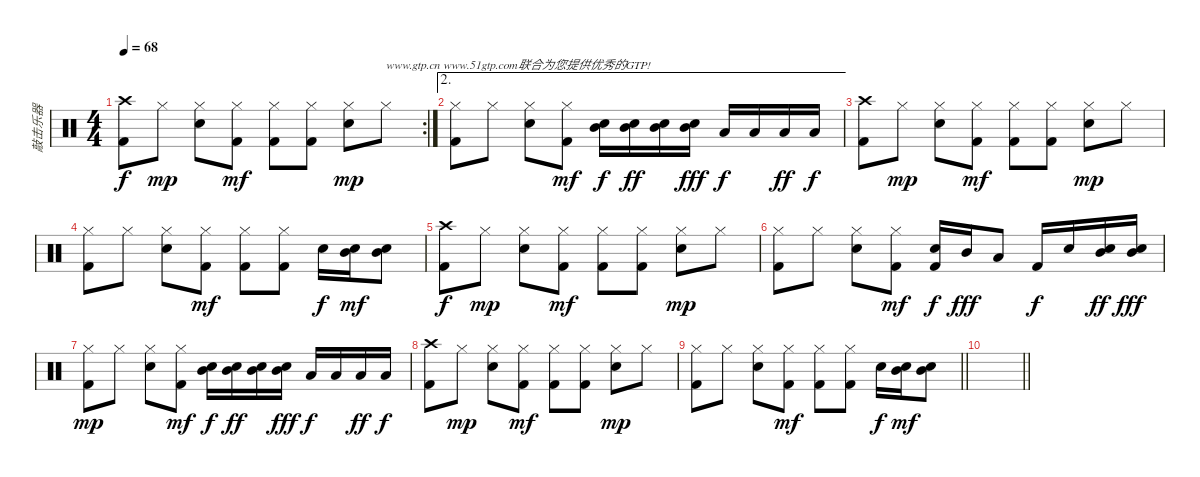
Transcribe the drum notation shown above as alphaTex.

\track ("敲击乐器" "敲击乐器") {instrument percussion}
\staff {score}
\articulation defaults
\rc 2
\ts (4 4)
\tempo 68
\clef neutral
\ks c
("Crash high (hit)" "Kick (hit) 2").8{dy f} "Hi-Hat (closed)".8{dy mp} ("Hi-Hat (closed)" "Electric Snare (hit)").8 ("Hi-Hat (closed)" "Kick (hit) 2").8{dy mf} ("Hi-Hat (closed)" "Kick (hit) 2").8 ("Hi-Hat (closed)" "Kick (hit) 2").8 ("Hi-Hat (closed)" "Electric Snare (hit)").8{dy mp} "Hi-Hat (closed)".8{txt "www.gtp.cn www.51gtp.com联合为您提供优秀的GTP!"} |
\ae 2
("Hi-Hat (closed)" "Kick (hit) 2").8 "Hi-Hat (closed)".8 ("Hi-Hat (closed)" "Electric Snare (hit)").8 ("Hi-Hat (closed)" "Kick (hit) 2").8{dy mf} ("Mid Tom (hit)" "Snare (hit) 2").16{dy f} ("Mid Tom (hit)" "Snare (hit) 2").16{dy ff} ("Mid Tom (hit)" "Snare (hit) 2").16 ("Mid Tom (hit)" "Snare (hit) 2").16{dy fff} "Low Tom (hit)".16{dy f} "Low Tom (hit)".16 "Low Tom (hit)".16{dy ff} "Low Tom (hit)".16{dy f} |
("Crash high (hit)" "Kick (hit) 2").8 "Hi-Hat (closed)".8{dy mp} ("Hi-Hat (closed)" "Electric Snare (hit)").8 ("Hi-Hat (closed)" "Kick (hit) 2").8{dy mf} ("Hi-Hat (closed)" "Kick (hit) 2").8 ("Hi-Hat (closed)" "Kick (hit) 2").8 ("Hi-Hat (closed)" "Electric Snare (hit)").8{dy mp} "Hi-Hat (closed)".8 |
("Hi-Hat (closed)" "Kick (hit) 2").8 "Hi-Hat (closed)".8 ("Hi-Hat (closed)" "Electric Snare (hit)").8 ("Hi-Hat (closed)" "Kick (hit) 2").8{dy mf} ("Hi-Hat (closed)" "Kick (hit) 2").8 ("Hi-Hat (closed)" "Kick (hit) 2").8 "Electric Snare (hit)".16{dy f} ("Mid Tom (hit)" "Snare (hit) 2").16{dy mf} ("Mid Tom (hit)" "Snare (hit) 2").8 |
("Crash high (hit)" "Kick (hit) 2").8{dy f} "Hi-Hat (closed)".8{dy mp} ("Hi-Hat (closed)" "Electric Snare (hit)").8 ("Hi-Hat (closed)" "Kick (hit) 2").8{dy mf} ("Hi-Hat (closed)" "Kick (hit) 2").8 ("Hi-Hat (closed)" "Kick (hit) 2").8 ("Hi-Hat (closed)" "Electric Snare (hit)").8{dy mp} "Hi-Hat (closed)".8 |
("Hi-Hat (closed)" "Kick (hit) 2").8 "Hi-Hat (closed)".8 ("Hi-Hat (closed)" "Electric Snare (hit)").8 ("Hi-Hat (closed)" "Kick (hit) 2").8{dy mf} ("Electric Snare (hit)" "Kick (hit) 2").16{dy f} "Mid Tom (hit)".16{dy fff} "Low Tom (hit)".8 "Kick (hit) 2".16{dy f} "Snare (hit) 2".16 ("Mid Tom (hit)" "Snare (hit) 2").16{dy ff} ("Mid Tom (hit)" "Snare (hit) 2").16{dy fff} |
("Hi-Hat (closed)" "Kick (hit) 2").8{dy mp} "Hi-Hat (closed)".8 ("Hi-Hat (closed)" "Electric Snare (hit)").8 ("Hi-Hat (closed)" "Kick (hit) 2").8{dy mf} ("Mid Tom (hit)" "Snare (hit) 2").16{dy f} ("Mid Tom (hit)" "Snare (hit) 2").16{dy ff} ("Mid Tom (hit)" "Snare (hit) 2").16 ("Mid Tom (hit)" "Snare (hit) 2").16{dy fff} "Low Tom (hit)".16{dy f} "Low Tom (hit)".16 "Low Tom (hit)".16{dy ff} "Low Tom (hit)".16{dy f} |
("Crash high (hit)" "Kick (hit) 2").8 "Hi-Hat (closed)".8{dy mp} ("Hi-Hat (closed)" "Electric Snare (hit)").8 ("Hi-Hat (closed)" "Kick (hit) 2").8{dy mf} ("Hi-Hat (closed)" "Kick (hit) 2").8 ("Hi-Hat (closed)" "Kick (hit) 2").8 ("Hi-Hat (closed)" "Electric Snare (hit)").8{dy mp} "Hi-Hat (closed)".8 |
\barLineRight lightlight
("Hi-Hat (closed)" "Kick (hit) 2").8 "Hi-Hat (closed)".8 ("Hi-Hat (closed)" "Electric Snare (hit)").8 ("Hi-Hat (closed)" "Kick (hit) 2").8{dy mf} ("Hi-Hat (closed)" "Kick (hit) 2").8 ("Hi-Hat (closed)" "Kick (hit) 2").8 "Electric Snare (hit)".16{dy f} ("Mid Tom (hit)" "Snare (hit) 2").16{dy mf} ("Mid Tom (hit)" "Snare (hit) 2").8 |
\barLineRight lightlight
